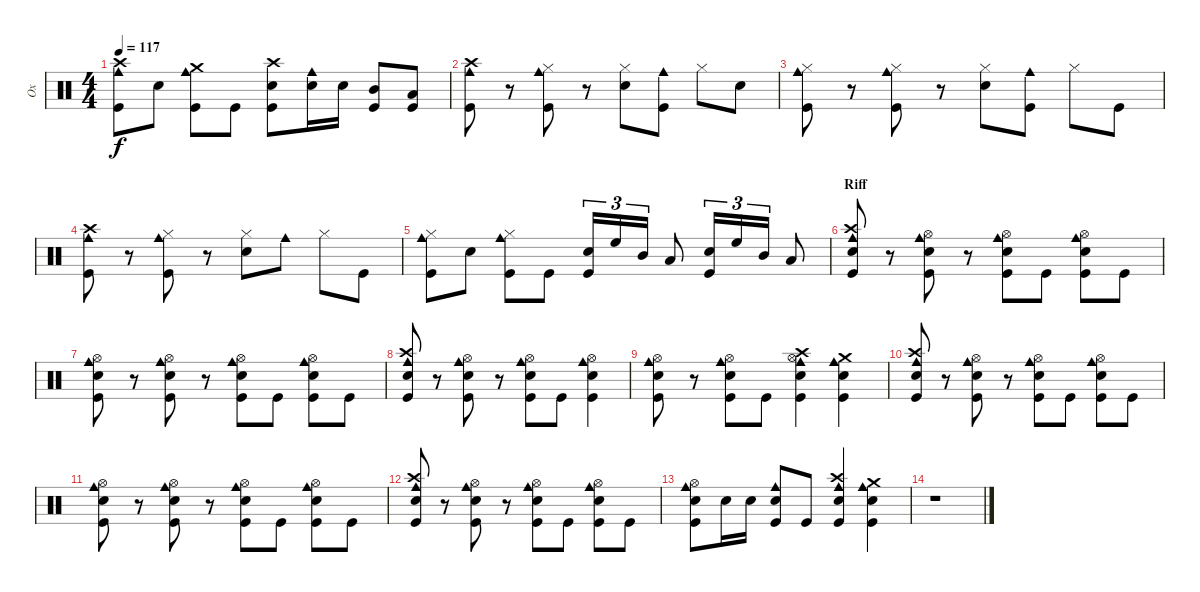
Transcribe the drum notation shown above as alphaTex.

\track ("Ox" "Ox") {instrument percussion}
\staff {score}
\articulation defaults
\ts (4 4)
\tempo 117
\clef neutral
\ks c
("Kick (hit)" "Crash high (hit)" "Cowbell medium (hit)").8{dy f} "Snare (hit) 2".8 ("Kick (hit)" "Crash medium (hit)" "Cowbell medium (hit)").8 "Kick (hit)".8 ("Snare (hit) 2" "Crash high (hit)" "Kick (hit)").8 ("Snare (hit) 2" "Cowbell medium (hit)").16 "Snare (hit) 2".16 ("Mid Tom (hit)" "Kick (hit)").8 ("Low Floor Tom (hit)" "Kick (hit)").8 |
("Kick (hit)" "Crash high (hit)" "Cowbell medium (hit)").8 r.8 ("Kick (hit)" "Hi-Hat (closed)" "Cowbell medium (hit)").8 r.8 ("Snare (hit) 2" "Hi-Hat (closed)").8 ("Kick (hit)" "Cowbell medium (hit)").8 "Hi-Hat (closed)".8 "Snare (hit) 2".8 |
("Kick (hit)" "Hi-Hat (closed)" "Cowbell medium (hit)").8 r.8 ("Kick (hit)" "Hi-Hat (closed)" "Cowbell medium (hit)").8 r.8 ("Snare (hit) 2" "Hi-Hat (closed)").8 ("Kick (hit)" "Cowbell medium (hit)").8 "Hi-Hat (closed)".8 "Kick (hit)".8 |
("Kick (hit)" "Cowbell medium (hit)" "Crash high (hit)").8 r.8 ("Kick (hit)" "Hi-Hat (closed)" "Cowbell medium (hit)").8 r.8 ("Snare (hit) 2" "Hi-Hat (closed)").8 "Cowbell medium (hit)".8 "Hi-Hat (closed)".8 "Kick (hit)".8 |
("Kick (hit)" "Hi-Hat (closed)" "Cowbell medium (hit)").8 "Snare (hit) 2".8 ("Kick (hit)" "Hi-Hat (closed)" "Cowbell medium (hit)").8 "Kick (hit)".8 ("Kick (hit)" "Snare (hit) 2").16{tu (3 2)} "High Floor Tom (hit)".16{tu (3 2)} "Mid Tom (hit)".16{tu (3 2)} "Low Floor Tom (hit)".8 ("Snare (hit) 2" "Kick (hit)").16{tu (3 2)} "High Floor Tom (hit)".16{tu (3 2)} "Mid Tom (hit)".16{tu (3 2)} "Low Floor Tom (hit)".8 |
\section ("" "Riff")
("Snare (hit) 2" "Kick (hit)" "Crash high (hit)" "Cowbell medium (hit)").8 r.8 ("Snare (hit) 2" "Kick (hit)" "Cowbell medium (hit)" "Hi-Hat (open)").8 r.8 ("Snare (hit) 2" "Cowbell medium (hit)" "Hi-Hat (open)" "Kick (hit)").8 "Kick (hit)".8 ("Snare (hit) 2" "Cowbell medium (hit)" "Hi-Hat (open)" "Kick (hit)").8 "Kick (hit)".8 |
("Snare (hit) 2" "Kick (hit)" "Cowbell medium (hit)" "Hi-Hat (open)").8 r.8 ("Snare (hit) 2" "Kick (hit)" "Cowbell medium (hit)" "Hi-Hat (open)").8 r.8 ("Snare (hit) 2" "Cowbell medium (hit)" "Hi-Hat (open)" "Kick (hit)").8 "Kick (hit)".8 ("Snare (hit) 2" "Cowbell medium (hit)" "Hi-Hat (open)" "Kick (hit)").8 "Kick (hit)".8 |
("Snare (hit) 2" "Kick (hit)" "Crash high (hit)" "Cowbell medium (hit)").8 r.8 ("Snare (hit) 2" "Kick (hit)" "Hi-Hat (open)" "Cowbell medium (hit)").8 r.8 ("Snare (hit) 2" "Hi-Hat (open)" "Cowbell medium (hit)" "Kick (hit)").8 "Kick (hit)".8 ("Snare (hit) 2" "Hi-Hat (open)" "Cowbell medium (hit)" "Kick (hit)").4 |
("Snare (hit) 2" "Kick (hit)" "Cowbell medium (hit)" "Hi-Hat (open)").8 r.8 ("Snare (hit) 2" "Kick (hit)" "Cowbell medium (hit)" "Hi-Hat (open)").8 "Kick (hit)".8 ("Snare (hit) 2" "Cowbell medium (hit)" "Kick (hit)" "Hi-Hat (open)" "Crash high (hit)").4 ("Snare (hit) 2" "Crash medium (hit)" "Cowbell medium (hit)" "Kick (hit)").4 |
("Snare (hit) 2" "Kick (hit)" "Crash high (hit)" "Cowbell medium (hit)").8 r.8 ("Snare (hit) 2" "Kick (hit)" "Cowbell medium (hit)" "Hi-Hat (open)").8 r.8 ("Snare (hit) 2" "Cowbell medium (hit)" "Hi-Hat (open)" "Kick (hit)").8 "Kick (hit)".8 ("Snare (hit) 2" "Cowbell medium (hit)" "Hi-Hat (open)" "Kick (hit)").8 "Kick (hit)".8 |
("Snare (hit) 2" "Kick (hit)" "Cowbell medium (hit)" "Hi-Hat (open)").8 r.8 ("Snare (hit) 2" "Kick (hit)" "Cowbell medium (hit)" "Hi-Hat (open)").8 r.8 ("Snare (hit) 2" "Cowbell medium (hit)" "Hi-Hat (open)" "Kick (hit)").8 "Kick (hit)".8 ("Snare (hit) 2" "Cowbell medium (hit)" "Hi-Hat (open)" "Kick (hit)").8 "Kick (hit)".8 |
("Snare (hit) 2" "Kick (hit)" "Crash high (hit)" "Cowbell medium (hit)").8 r.8 ("Snare (hit) 2" "Kick (hit)" "Hi-Hat (open)" "Cowbell medium (hit)").8 r.8 ("Snare (hit) 2" "Hi-Hat (open)" "Cowbell medium (hit)" "Kick (hit)").8 "Kick (hit)".8 ("Snare (hit) 2" "Hi-Hat (open)" "Cowbell medium (hit)" "Kick (hit)").8 "Kick (hit)".8 |
("Snare (hit) 2" "Kick (hit)" "Cowbell medium (hit)" "Hi-Hat (open)").8 "Snare (hit) 2".16 "Snare (hit) 2".16 ("Snare (hit) 2" "Kick (hit)" "Cowbell medium (hit)").8 "Kick (hit)".8 ("Snare (hit) 2" "Cowbell medium (hit)" "Kick (hit)" "Crash high (hit)").4 ("Snare (hit) 2" "Crash medium (hit)" "Cowbell medium (hit)" "Kick (hit)").4 |
r.1
